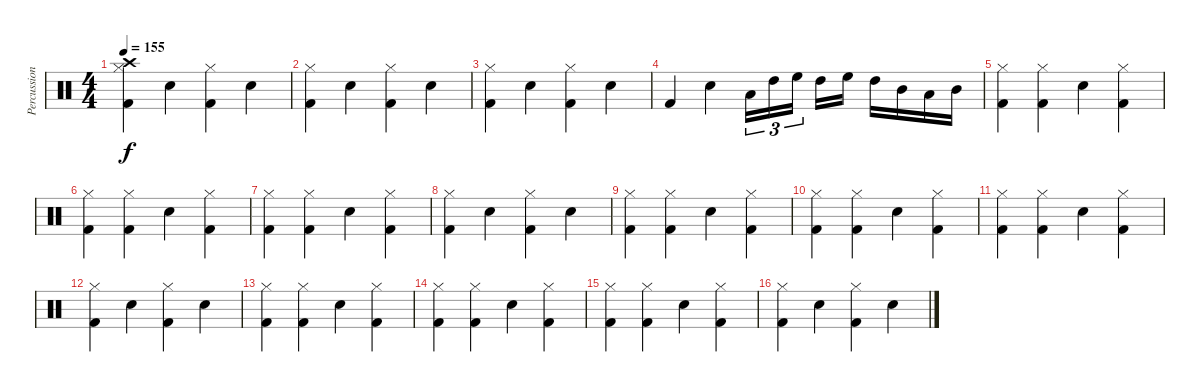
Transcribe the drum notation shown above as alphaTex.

\track ("Percussion" "Percussion") {instrument percussion}
\staff {score}
\articulation defaults
\ts (4 4)
\tempo 155
\clef neutral
\ks c
("Crash high (hit)" "Hi-Hat (closed)" "Kick (hit) 2").4{dy f} "Electric Snare (hit)".4 ("Hi-Hat (closed)" "Kick (hit) 2").4 "Electric Snare (hit)".4 |
("Hi-Hat (closed)" "Kick (hit) 2").4 "Electric Snare (hit)".4 ("Hi-Hat (closed)" "Kick (hit) 2").4 "Electric Snare (hit)".4 |
("Hi-Hat (closed)" "Kick (hit) 2").4 "Electric Snare (hit)".4 ("Hi-Hat (closed)" "Kick (hit) 2").4 "Electric Snare (hit)".4 |
"Kick (hit) 2".4 "Electric Snare (hit)".4 "Low Tom (hit)".16{tu (3 2)} "High Tom (hit)".16{tu (3 2)} "High Floor Tom (hit)".16{tu (3 2) beam splitsecondary} "High Tom (hit)".16 "High Floor Tom (hit)".16 "High Tom (hit)".16 "Mid Tom (hit)".16 "Low Tom (hit)".16 "Mid Tom (hit)".16 |
("Hi-Hat (closed)" "Kick (hit) 2").4 ("Hi-Hat (closed)" "Kick (hit) 2").4 "Electric Snare (hit)".4 ("Hi-Hat (closed)" "Kick (hit) 2").4 |
("Hi-Hat (closed)" "Kick (hit) 2").4 ("Hi-Hat (closed)" "Kick (hit) 2").4 "Electric Snare (hit)".4 ("Hi-Hat (closed)" "Kick (hit) 2").4 |
("Hi-Hat (closed)" "Kick (hit) 2").4 ("Hi-Hat (closed)" "Kick (hit) 2").4 "Electric Snare (hit)".4 ("Hi-Hat (closed)" "Kick (hit) 2").4 |
("Hi-Hat (closed)" "Kick (hit) 2").4 "Electric Snare (hit)".4 ("Hi-Hat (closed)" "Kick (hit) 2").4 "Electric Snare (hit)".4 |
("Hi-Hat (closed)" "Kick (hit) 2").4 ("Hi-Hat (closed)" "Kick (hit) 2").4 "Electric Snare (hit)".4 ("Hi-Hat (closed)" "Kick (hit) 2").4 |
("Hi-Hat (closed)" "Kick (hit) 2").4 ("Hi-Hat (closed)" "Kick (hit) 2").4 "Electric Snare (hit)".4 ("Hi-Hat (closed)" "Kick (hit) 2").4 |
("Hi-Hat (closed)" "Kick (hit) 2").4 ("Hi-Hat (closed)" "Kick (hit) 2").4 "Electric Snare (hit)".4 ("Hi-Hat (closed)" "Kick (hit) 2").4 |
("Hi-Hat (closed)" "Kick (hit) 2").4 "Electric Snare (hit)".4 ("Hi-Hat (closed)" "Kick (hit) 2").4 "Electric Snare (hit)".4 |
("Hi-Hat (closed)" "Kick (hit) 2").4 ("Hi-Hat (closed)" "Kick (hit) 2").4 "Electric Snare (hit)".4 ("Hi-Hat (closed)" "Kick (hit) 2").4 |
("Hi-Hat (closed)" "Kick (hit) 2").4 ("Hi-Hat (closed)" "Kick (hit) 2").4 "Electric Snare (hit)".4 ("Hi-Hat (closed)" "Kick (hit) 2").4 |
("Hi-Hat (closed)" "Kick (hit) 2").4 ("Hi-Hat (closed)" "Kick (hit) 2").4 "Electric Snare (hit)".4 ("Hi-Hat (closed)" "Kick (hit) 2").4 |
("Hi-Hat (closed)" "Kick (hit) 2").4 "Electric Snare (hit)".4 ("Hi-Hat (closed)" "Kick (hit) 2").4 "Electric Snare (hit)".4
